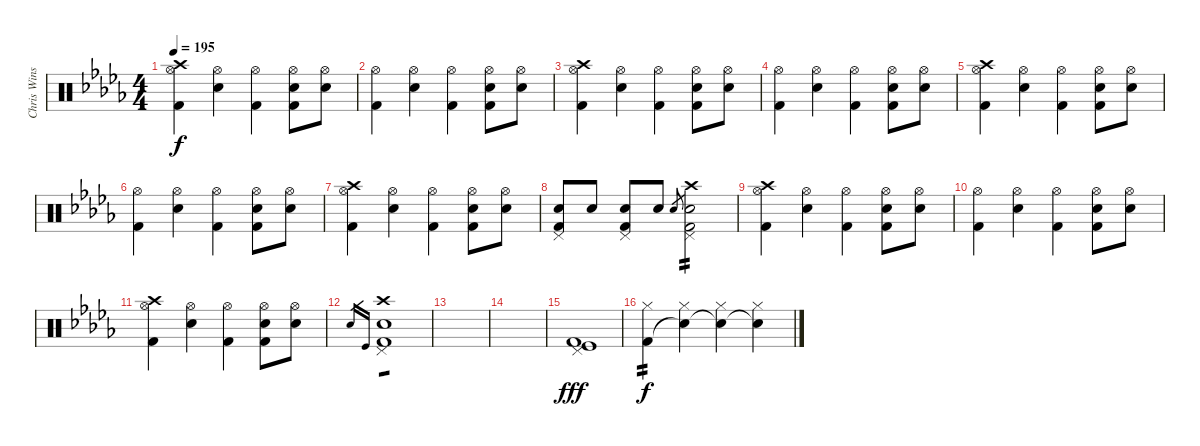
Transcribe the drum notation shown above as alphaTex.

\track ("Chris Winship (Drums)" "Chris Wins") {instrument percussion}
\staff {score}
\articulation defaults
\ts (4 4)
\tempo 195
\clef neutral
\ks bbminor
("Crash high (hit)" "Hi-Hat (open)" "Kick (hit) 2").4{dy f} ("Hi-Hat (open)" "Electric Snare (hit)").4 ("Hi-Hat (open)" "Kick (hit) 2").4 ("Hi-Hat (open)" "Electric Snare (hit)" "Kick (hit) 2").8 ("Hi-Hat (open)" "Electric Snare (hit)").8 |
("Hi-Hat (open)" "Kick (hit) 2").4 ("Hi-Hat (open)" "Electric Snare (hit)").4 ("Hi-Hat (open)" "Kick (hit) 2").4 ("Hi-Hat (open)" "Electric Snare (hit)" "Kick (hit) 2").8 ("Hi-Hat (open)" "Electric Snare (hit)").8 |
("Crash high (hit)" "Hi-Hat (open)" "Kick (hit) 2").4 ("Hi-Hat (open)" "Electric Snare (hit)").4 ("Hi-Hat (open)" "Kick (hit) 2").4 ("Hi-Hat (open)" "Electric Snare (hit)" "Kick (hit) 2").8 ("Hi-Hat (open)" "Electric Snare (hit)").8 |
("Hi-Hat (open)" "Kick (hit) 2").4 ("Hi-Hat (open)" "Electric Snare (hit)").4 ("Hi-Hat (open)" "Kick (hit) 2").4 ("Hi-Hat (open)" "Electric Snare (hit)" "Kick (hit) 2").8 ("Hi-Hat (open)" "Electric Snare (hit)").8 |
("Crash high (hit)" "Hi-Hat (open)" "Kick (hit) 2").4 ("Hi-Hat (open)" "Electric Snare (hit)").4 ("Hi-Hat (open)" "Kick (hit) 2").4 ("Hi-Hat (open)" "Electric Snare (hit)" "Kick (hit) 2").8 ("Hi-Hat (open)" "Electric Snare (hit)").8 |
("Hi-Hat (open)" "Kick (hit) 2").4 ("Hi-Hat (open)" "Electric Snare (hit)").4 ("Hi-Hat (open)" "Kick (hit) 2").4 ("Hi-Hat (open)" "Electric Snare (hit)" "Kick (hit) 2").8 ("Hi-Hat (open)" "Electric Snare (hit)").8 |
("Crash high (hit)" "Hi-Hat (open)" "Kick (hit) 2").4 ("Hi-Hat (open)" "Electric Snare (hit)").4 ("Hi-Hat (open)" "Kick (hit) 2").4 ("Hi-Hat (open)" "Electric Snare (hit)" "Kick (hit) 2").8 ("Hi-Hat (open)" "Electric Snare (hit)").8 |
("Electric Snare (hit)" "Kick (hit) 2" "Pedal Hi-Hat (hit)").8 "Electric Snare (hit)".8 ("Electric Snare (hit)" "Kick (hit) 2" "Pedal Hi-Hat (hit)").8 "Electric Snare (hit)".8 "Snare (hit) 2".8{gr} ("Electric Snare (hit)" "Kick (hit) 2" "Pedal Hi-Hat (hit)" "Crash high (hit)").2{tp 2} |
("Crash high (hit)" "Hi-Hat (open)" "Kick (hit) 2").4 ("Hi-Hat (open)" "Electric Snare (hit)").4 ("Hi-Hat (open)" "Kick (hit) 2").4 ("Hi-Hat (open)" "Electric Snare (hit)" "Kick (hit) 2").8 ("Hi-Hat (open)" "Electric Snare (hit)").8 |
("Hi-Hat (open)" "Kick (hit) 2").4 ("Hi-Hat (open)" "Electric Snare (hit)").4 ("Hi-Hat (open)" "Kick (hit) 2").4 ("Hi-Hat (open)" "Electric Snare (hit)" "Kick (hit) 2").8 ("Hi-Hat (open)" "Electric Snare (hit)").8 |
("Crash high (hit)" "Hi-Hat (open)" "Kick (hit) 2").4 ("Hi-Hat (open)" "Electric Snare (hit)").4 ("Hi-Hat (open)" "Kick (hit) 2").4 ("Hi-Hat (open)" "Electric Snare (hit)" "Kick (hit) 2").8 ("Hi-Hat (open)" "Electric Snare (hit)").8 |
"Snare (hit) 2".16{gr} "Kick (hit)".16{gr} ("Crash high (hit)" "Electric Snare (hit)" "Kick (hit) 2" "Pedal Hi-Hat (hit)").1{tp 1} |
|
|
("Pedal Hi-Hat (hit)" "Kick (hit) 2" "Kick (hit)").1{dy fff} |
("Hi-Hat (closed)" "Kick (hit) 2").4{tp 2 dy f} ("Hi-Hat (closed)" "Snare (hit)"{t}).4 ("Hi-Hat (closed)" "Snare (hit)"{t}).4 ("Hi-Hat (closed)" "Snare (hit)"{t}).4
